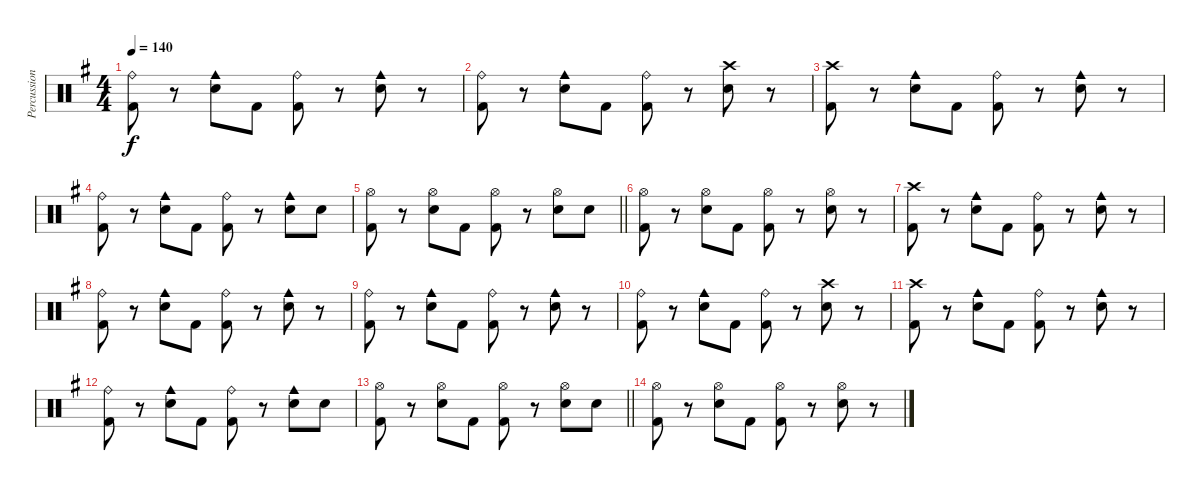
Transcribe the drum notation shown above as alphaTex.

\track ("Percussion" "Percussion") {instrument percussion}
\staff {score}
\articulation defaults
\ts (4 4)
\tempo 140
\clef neutral
\ks g
("Ride (bell)" "Kick (hit) 2").8{dy f} r.8 ("Cowbell medium (hit)" "Snare (hit) 2").8 "Kick (hit) 2".8 ("Ride (bell)" "Kick (hit) 2").8 r.8 ("Cowbell medium (hit)" "Snare (hit) 2").8 r.8 |
("Ride (bell)" "Kick (hit) 2").8 r.8 ("Cowbell medium (hit)" "Snare (hit) 2").8 "Kick (hit) 2".8 ("Ride (bell)" "Kick (hit) 2").8 r.8 ("Crash high (hit)" "Snare (hit) 2").8 r.8 |
("Crash high (hit)" "Kick (hit) 2").8 r.8 ("Cowbell medium (hit)" "Snare (hit) 2").8 "Kick (hit) 2".8 ("Ride (bell)" "Kick (hit) 2").8 r.8 ("Cowbell medium (hit)" "Snare (hit) 2").8 r.8 |
("Ride (bell)" "Kick (hit) 2").8 r.8 ("Cowbell medium (hit)" "Snare (hit) 2").8 "Kick (hit) 2".8 ("Ride (bell)" "Kick (hit) 2").8 r.8 ("Cowbell medium (hit)" "Snare (hit) 2").8 "Snare (hit) 2".8 |
\barLineRight lightlight
("Hi-Hat (open)" "Kick (hit) 2").8 r.8 ("Hi-Hat (open)" "Snare (hit) 2").8 "Kick (hit) 2".8 ("Hi-Hat (open)" "Kick (hit) 2").8 r.8 ("Hi-Hat (open)" "Snare (hit) 2").8 "Snare (hit) 2".8 |
("Hi-Hat (open)" "Kick (hit) 2").8 r.8 ("Hi-Hat (open)" "Snare (hit) 2").8 "Kick (hit) 2".8 ("Hi-Hat (open)" "Kick (hit) 2").8 r.8 ("Hi-Hat (open)" "Snare (hit) 2").8 r.8 |
("Crash high (hit)" "Kick (hit) 2").8 r.8 ("Cowbell medium (hit)" "Snare (hit) 2").8 "Kick (hit) 2".8 ("Ride (bell)" "Kick (hit) 2").8 r.8 ("Cowbell medium (hit)" "Snare (hit) 2").8 r.8 |
("Ride (bell)" "Kick (hit) 2").8 r.8 ("Cowbell medium (hit)" "Snare (hit) 2").8 "Kick (hit) 2".8 ("Ride (bell)" "Kick (hit) 2").8 r.8 ("Cowbell medium (hit)" "Snare (hit) 2").8 r.8 |
("Ride (bell)" "Kick (hit) 2").8 r.8 ("Cowbell medium (hit)" "Snare (hit) 2").8 "Kick (hit) 2".8 ("Ride (bell)" "Kick (hit) 2").8 r.8 ("Cowbell medium (hit)" "Snare (hit) 2").8 r.8 |
("Ride (bell)" "Kick (hit) 2").8 r.8 ("Cowbell medium (hit)" "Snare (hit) 2").8 "Kick (hit) 2".8 ("Ride (bell)" "Kick (hit) 2").8 r.8 ("Crash high (hit)" "Snare (hit) 2").8 r.8 |
("Crash high (hit)" "Kick (hit) 2").8 r.8 ("Cowbell medium (hit)" "Snare (hit) 2").8 "Kick (hit) 2".8 ("Ride (bell)" "Kick (hit) 2").8 r.8 ("Cowbell medium (hit)" "Snare (hit) 2").8 r.8 |
("Ride (bell)" "Kick (hit) 2").8 r.8 ("Cowbell medium (hit)" "Snare (hit) 2").8 "Kick (hit) 2".8 ("Ride (bell)" "Kick (hit) 2").8 r.8 ("Cowbell medium (hit)" "Snare (hit) 2").8 "Snare (hit) 2".8 |
\barLineRight lightlight
("Hi-Hat (open)" "Kick (hit) 2").8 r.8 ("Hi-Hat (open)" "Snare (hit) 2").8 "Kick (hit) 2".8 ("Hi-Hat (open)" "Kick (hit) 2").8 r.8 ("Hi-Hat (open)" "Snare (hit) 2").8 "Snare (hit) 2".8 |
("Hi-Hat (open)" "Kick (hit) 2").8 r.8 ("Hi-Hat (open)" "Snare (hit) 2").8 "Kick (hit) 2".8 ("Hi-Hat (open)" "Kick (hit) 2").8 r.8 ("Hi-Hat (open)" "Snare (hit) 2").8 r.8
